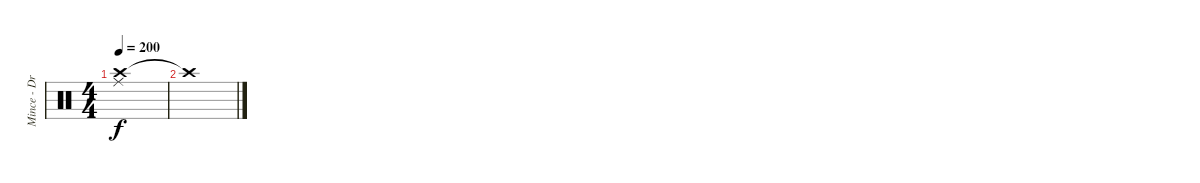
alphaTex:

\track ("Mince - Drums" "Mince - Dr") {instrument percussion}
\staff {score}
\articulation defaults
\ts (4 4)
\tempo 200
\clef neutral
\ks c
("Crash high (hit)" "Ride (middle)"{t}).1{dy f} |
"Crash high (hit)"{t}.1
